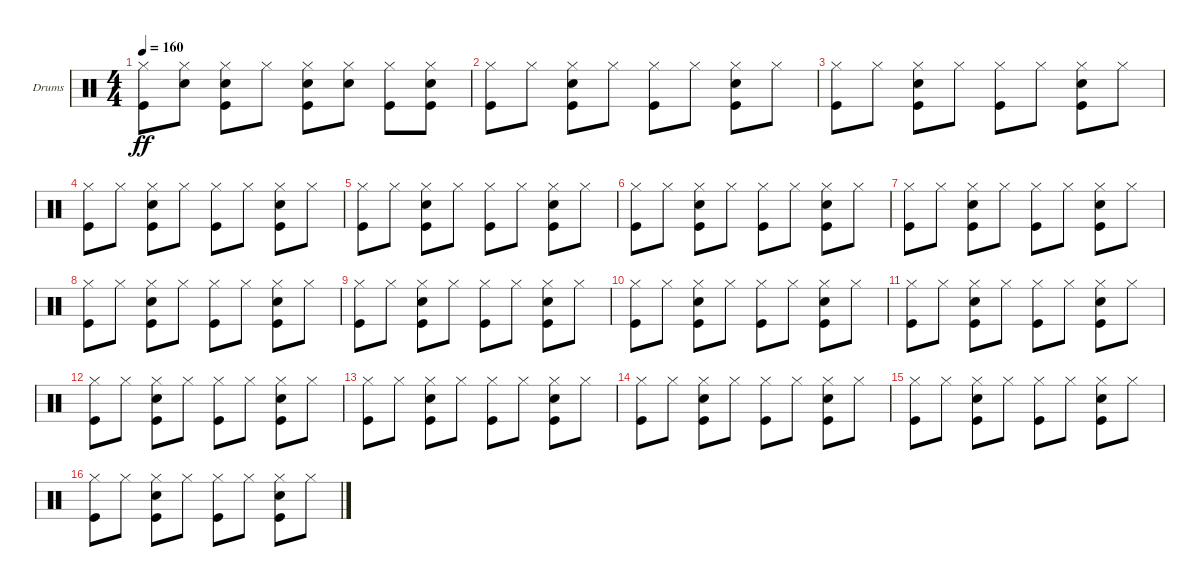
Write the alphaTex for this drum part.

\bracketExtendMode groupsimilarinstruments
\firstSystemTrackNameOrientation horizontal
\otherSystemsTrackNameOrientation horizontal
\track ("Ударные" "Drums") {instrument percussion}
\staff {score}
\articulation defaults
\ts (4 4)
\tempo 160
\clef neutral
\ks c
("Hi-Hat (closed)" "Kick (hit)").8{dy ff} ("Hi-Hat (closed)" "Snare (hit) 2").8 ("Hi-Hat (closed)" "Snare (hit) 2" "Kick (hit)").8 "Hi-Hat (closed)".8 ("Hi-Hat (closed)" "Snare (hit) 2" "Kick (hit)").8 ("Hi-Hat (closed)" "Snare (hit) 2").8 ("Hi-Hat (closed)" "Kick (hit)").8 ("Hi-Hat (closed)" "Snare (hit) 2" "Kick (hit)").8 |
("Hi-Hat (closed)" "Kick (hit)").8 "Hi-Hat (closed)".8 ("Hi-Hat (closed)" "Snare (hit) 2" "Kick (hit)").8 "Hi-Hat (closed)".8 ("Hi-Hat (closed)" "Kick (hit)").8 "Hi-Hat (closed)".8 ("Hi-Hat (closed)" "Snare (hit) 2" "Kick (hit)").8 "Hi-Hat (closed)".8 |
("Hi-Hat (closed)" "Kick (hit)").8 "Hi-Hat (closed)".8 ("Hi-Hat (closed)" "Snare (hit) 2" "Kick (hit)").8 "Hi-Hat (closed)".8 ("Hi-Hat (closed)" "Kick (hit)").8 "Hi-Hat (closed)".8 ("Hi-Hat (closed)" "Snare (hit) 2" "Kick (hit)").8 "Hi-Hat (closed)".8 |
("Hi-Hat (closed)" "Kick (hit)").8 "Hi-Hat (closed)".8 ("Hi-Hat (closed)" "Snare (hit) 2" "Kick (hit)").8 "Hi-Hat (closed)".8 ("Hi-Hat (closed)" "Kick (hit)").8 "Hi-Hat (closed)".8 ("Hi-Hat (closed)" "Snare (hit) 2" "Kick (hit)").8 "Hi-Hat (closed)".8 |
("Hi-Hat (closed)" "Kick (hit)").8 "Hi-Hat (closed)".8 ("Hi-Hat (closed)" "Snare (hit) 2" "Kick (hit)").8 "Hi-Hat (closed)".8 ("Hi-Hat (closed)" "Kick (hit)").8 "Hi-Hat (closed)".8 ("Hi-Hat (closed)" "Snare (hit) 2" "Kick (hit)").8 "Hi-Hat (closed)".8 |
("Hi-Hat (closed)" "Kick (hit)").8 "Hi-Hat (closed)".8 ("Hi-Hat (closed)" "Snare (hit) 2" "Kick (hit)").8 "Hi-Hat (closed)".8 ("Hi-Hat (closed)" "Kick (hit)").8 "Hi-Hat (closed)".8 ("Hi-Hat (closed)" "Snare (hit) 2" "Kick (hit)").8 "Hi-Hat (closed)".8 |
("Hi-Hat (closed)" "Kick (hit)").8 "Hi-Hat (closed)".8 ("Hi-Hat (closed)" "Snare (hit) 2" "Kick (hit)").8 "Hi-Hat (closed)".8 ("Hi-Hat (closed)" "Kick (hit)").8 "Hi-Hat (closed)".8 ("Hi-Hat (closed)" "Snare (hit) 2" "Kick (hit)").8 "Hi-Hat (closed)".8 |
("Hi-Hat (closed)" "Kick (hit)").8 "Hi-Hat (closed)".8 ("Hi-Hat (closed)" "Snare (hit) 2" "Kick (hit)").8 "Hi-Hat (closed)".8 ("Hi-Hat (closed)" "Kick (hit)").8 "Hi-Hat (closed)".8 ("Hi-Hat (closed)" "Snare (hit) 2" "Kick (hit)").8 "Hi-Hat (closed)".8 |
("Hi-Hat (closed)" "Kick (hit)").8 "Hi-Hat (closed)".8 ("Hi-Hat (closed)" "Snare (hit) 2" "Kick (hit)").8 "Hi-Hat (closed)".8 ("Hi-Hat (closed)" "Kick (hit)").8 "Hi-Hat (closed)".8 ("Hi-Hat (closed)" "Snare (hit) 2" "Kick (hit)").8 "Hi-Hat (closed)".8 |
("Hi-Hat (closed)" "Kick (hit)").8 "Hi-Hat (closed)".8 ("Hi-Hat (closed)" "Snare (hit) 2" "Kick (hit)").8 "Hi-Hat (closed)".8 ("Hi-Hat (closed)" "Kick (hit)").8 "Hi-Hat (closed)".8 ("Hi-Hat (closed)" "Snare (hit) 2" "Kick (hit)").8 "Hi-Hat (closed)".8 |
("Hi-Hat (closed)" "Kick (hit)").8 "Hi-Hat (closed)".8 ("Hi-Hat (closed)" "Snare (hit) 2" "Kick (hit)").8 "Hi-Hat (closed)".8 ("Hi-Hat (closed)" "Kick (hit)").8 "Hi-Hat (closed)".8 ("Hi-Hat (closed)" "Snare (hit) 2" "Kick (hit)").8 "Hi-Hat (closed)".8 |
("Hi-Hat (closed)" "Kick (hit)").8 "Hi-Hat (closed)".8 ("Hi-Hat (closed)" "Snare (hit) 2" "Kick (hit)").8 "Hi-Hat (closed)".8 ("Hi-Hat (closed)" "Kick (hit)").8 "Hi-Hat (closed)".8 ("Hi-Hat (closed)" "Snare (hit) 2" "Kick (hit)").8 "Hi-Hat (closed)".8 |
("Hi-Hat (closed)" "Kick (hit)").8 "Hi-Hat (closed)".8 ("Hi-Hat (closed)" "Snare (hit) 2" "Kick (hit)").8 "Hi-Hat (closed)".8 ("Hi-Hat (closed)" "Kick (hit)").8 "Hi-Hat (closed)".8 ("Hi-Hat (closed)" "Snare (hit) 2" "Kick (hit)").8 "Hi-Hat (closed)".8 |
("Hi-Hat (closed)" "Kick (hit)").8 "Hi-Hat (closed)".8 ("Hi-Hat (closed)" "Snare (hit) 2" "Kick (hit)").8 "Hi-Hat (closed)".8 ("Hi-Hat (closed)" "Kick (hit)").8 "Hi-Hat (closed)".8 ("Hi-Hat (closed)" "Snare (hit) 2" "Kick (hit)").8 "Hi-Hat (closed)".8 |
("Hi-Hat (closed)" "Kick (hit)").8 "Hi-Hat (closed)".8 ("Hi-Hat (closed)" "Snare (hit) 2" "Kick (hit)").8 "Hi-Hat (closed)".8 ("Hi-Hat (closed)" "Kick (hit)").8 "Hi-Hat (closed)".8 ("Hi-Hat (closed)" "Snare (hit) 2" "Kick (hit)").8 "Hi-Hat (closed)".8 |
("Hi-Hat (closed)" "Kick (hit)").8 "Hi-Hat (closed)".8 ("Hi-Hat (closed)" "Snare (hit) 2" "Kick (hit)").8 "Hi-Hat (closed)".8 ("Hi-Hat (closed)" "Kick (hit)").8 "Hi-Hat (closed)".8 ("Hi-Hat (closed)" "Snare (hit) 2" "Kick (hit)").8 "Hi-Hat (closed)".8
